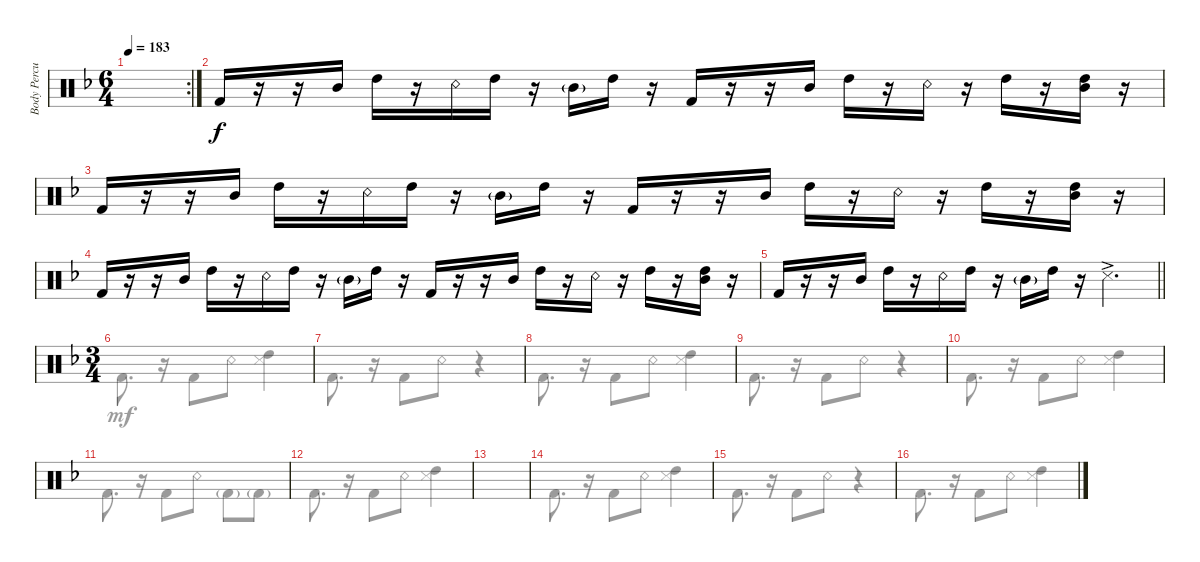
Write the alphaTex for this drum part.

\track ("Body Percussion" "Body Percu") {instrument percussion}
\staff {score}
\articulation defaults
\voice
\rc 2
\ts (6 4)
\tempo 183
\clef neutral
\ks dminor
|
"Kick (hit) 2".16 r.16 r.16 "Mid Tom (hit)".16 "High Tom (hit)".16 r.16 "Snare (rim shot)".16 "High Tom (hit)".16 r.16 "Mid Tom (hit)"{g}.16 "High Tom (hit)".16 r.16 "Kick (hit) 2".16 r.16 r.16 "Mid Tom (hit)".16 "High Tom (hit)".16 r.16 "Snare (rim shot)".16 r.16 "High Tom (hit)".16 r.16 ("High Tom (hit)" "Mid Tom (hit)").16 r.16 |
"Kick (hit) 2".16 r.16 r.16 "Mid Tom (hit)".16 "High Tom (hit)".16 r.16 "Snare (rim shot)".16 "High Tom (hit)".16 r.16 "Mid Tom (hit)"{g}.16 "High Tom (hit)".16 r.16 "Kick (hit) 2".16 r.16 r.16 "Mid Tom (hit)".16 "High Tom (hit)".16 r.16 "Snare (rim shot)".16 r.16 "High Tom (hit)".16 r.16 ("High Tom (hit)" "Mid Tom (hit)").16 r.16 |
"Kick (hit) 2".16 r.16 r.16 "Mid Tom (hit)".16 "High Tom (hit)".16 r.16 "Snare (rim shot)".16 "High Tom (hit)".16 r.16 "Mid Tom (hit)"{g}.16 "High Tom (hit)".16 r.16 "Kick (hit) 2".16 r.16 r.16 "Mid Tom (hit)".16 "High Tom (hit)".16 r.16 "Snare (rim shot)".16 r.16 "High Tom (hit)".16 r.16 ("High Tom (hit)" "Mid Tom (hit)").16 r.16 |
\barLineRight lightlight "Kick (hit) 2".16
r.16 r.16 "Mid Tom (hit)".16 "High Tom (hit)".16 r.16 "Snare (rim shot)".16 "High Tom (hit)".16 r.16 "Mid Tom (hit)"{g}.16 "High Tom (hit)".16 r.16 "Snare (side stick) 3"{ac}.2{d} |
\ts (3 4)
|
|
|
|
|
|
|
|
|
|
\voice
\clef neutral
\ottava regular
\simile none
\ks dminor
|
|
|
|
\barLineRight lightlight
|
"Kick (hit) 2".8{d dy mf} r.16 "Kick (hit) 2".8 "Snare (rim shot)".8 ("High Tom (hit)" "Snare (side stick) 3").4 |
"Kick (hit) 2".8{d} r.16 "Kick (hit) 2".8 "Snare (rim shot)".8 r.4 |
"Kick (hit) 2".8{d} r.16 "Kick (hit) 2".8 "Snare (rim shot)".8 ("High Tom (hit)" "Snare (side stick) 3").4 |
"Kick (hit) 2".8{d} r.16 "Kick (hit) 2".8 "Snare (rim shot)".8 r.4 |
"Kick (hit) 2".8{d} r.16 "Kick (hit) 2".8 "Snare (rim shot)".8 ("High Tom (hit)" "Snare (side stick) 3").4 |
"Kick (hit) 2".8{d} r.16 "Kick (hit) 2".8 "Snare (rim shot)".8 "Kick (hit) 2"{g}.8 "Kick (hit) 2"{g}.8 |
"Kick (hit) 2".8{d} r.16 "Kick (hit) 2".8 "Snare (rim shot)".8 ("High Tom (hit)" "Snare (side stick) 3").4 |
|
"Kick (hit) 2".8{d} r.16 "Kick (hit) 2".8 "Snare (rim shot)".8 ("High Tom (hit)" "Snare (side stick) 3").4 |
"Kick (hit) 2".8{d} r.16 "Kick (hit) 2".8 "Snare (rim shot)".8 r.4 |
"Kick (hit) 2".8{d} r.16 "Kick (hit) 2".8 "Snare (rim shot)".8 ("High Tom (hit)" "Snare (side stick) 3").4
